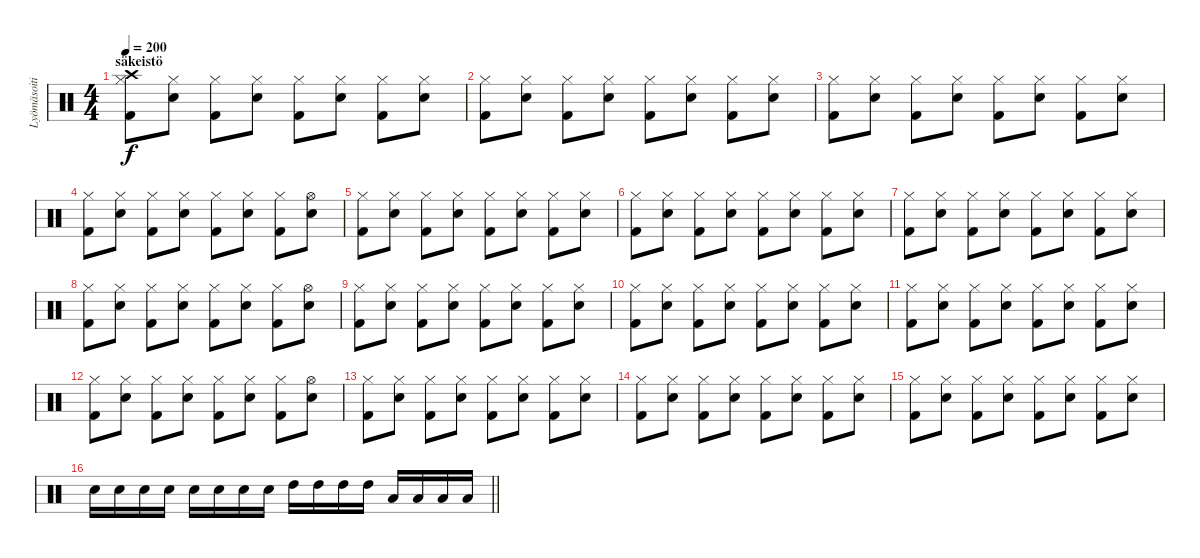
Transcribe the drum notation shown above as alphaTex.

\track ("Lyömäsoitin" "Lyömäsoiti") {instrument percussion}
\staff {score}
\articulation defaults
\ts (4 4)
\section ("" "säkeistö")
\tempo 200
\clef neutral
\ks c
("Crash high (hit)" "Hi-Hat (closed)" "Kick (hit) 2").8{dy f} ("Hi-Hat (closed)" "Electric Snare (hit)").8 ("Hi-Hat (closed)" "Kick (hit) 2").8 ("Hi-Hat (closed)" "Electric Snare (hit)").8 ("Hi-Hat (closed)" "Kick (hit) 2").8 ("Hi-Hat (closed)" "Electric Snare (hit)").8 ("Hi-Hat (closed)" "Kick (hit) 2").8 ("Hi-Hat (closed)" "Electric Snare (hit)").8 |
("Hi-Hat (closed)" "Kick (hit) 2").8 ("Hi-Hat (closed)" "Electric Snare (hit)").8 ("Hi-Hat (closed)" "Kick (hit) 2").8 ("Hi-Hat (closed)" "Electric Snare (hit)").8 ("Hi-Hat (closed)" "Kick (hit) 2").8 ("Hi-Hat (closed)" "Electric Snare (hit)").8 ("Hi-Hat (closed)" "Kick (hit) 2").8 ("Hi-Hat (closed)" "Electric Snare (hit)").8 |
("Hi-Hat (closed)" "Kick (hit) 2").8 ("Hi-Hat (closed)" "Electric Snare (hit)").8 ("Hi-Hat (closed)" "Kick (hit) 2").8 ("Hi-Hat (closed)" "Electric Snare (hit)").8 ("Hi-Hat (closed)" "Kick (hit) 2").8 ("Hi-Hat (closed)" "Electric Snare (hit)").8 ("Hi-Hat (closed)" "Kick (hit) 2").8 ("Hi-Hat (closed)" "Electric Snare (hit)").8 |
("Hi-Hat (closed)" "Kick (hit) 2").8 ("Hi-Hat (closed)" "Electric Snare (hit)").8 ("Hi-Hat (closed)" "Kick (hit) 2").8 ("Hi-Hat (closed)" "Electric Snare (hit)").8 ("Hi-Hat (closed)" "Kick (hit) 2").8 ("Hi-Hat (closed)" "Electric Snare (hit)").8 ("Hi-Hat (closed)" "Kick (hit) 2").8 ("Hi-Hat (open)" "Electric Snare (hit)").8 |
("Hi-Hat (closed)" "Kick (hit) 2").8 ("Hi-Hat (closed)" "Electric Snare (hit)").8 ("Hi-Hat (closed)" "Kick (hit) 2").8 ("Hi-Hat (closed)" "Electric Snare (hit)").8 ("Hi-Hat (closed)" "Kick (hit) 2").8 ("Hi-Hat (closed)" "Electric Snare (hit)").8 ("Hi-Hat (closed)" "Kick (hit) 2").8 ("Hi-Hat (closed)" "Electric Snare (hit)").8 |
("Hi-Hat (closed)" "Kick (hit) 2").8 ("Hi-Hat (closed)" "Electric Snare (hit)").8 ("Hi-Hat (closed)" "Kick (hit) 2").8 ("Hi-Hat (closed)" "Electric Snare (hit)").8 ("Hi-Hat (closed)" "Kick (hit) 2").8 ("Hi-Hat (closed)" "Electric Snare (hit)").8 ("Hi-Hat (closed)" "Kick (hit) 2").8 ("Hi-Hat (closed)" "Electric Snare (hit)").8 |
("Hi-Hat (closed)" "Kick (hit) 2").8 ("Hi-Hat (closed)" "Electric Snare (hit)").8 ("Hi-Hat (closed)" "Kick (hit) 2").8 ("Hi-Hat (closed)" "Electric Snare (hit)").8 ("Hi-Hat (closed)" "Kick (hit) 2").8 ("Hi-Hat (closed)" "Electric Snare (hit)").8 ("Hi-Hat (closed)" "Kick (hit) 2").8 ("Hi-Hat (closed)" "Electric Snare (hit)").8 |
("Hi-Hat (closed)" "Kick (hit) 2").8 ("Hi-Hat (closed)" "Electric Snare (hit)").8 ("Hi-Hat (closed)" "Kick (hit) 2").8 ("Hi-Hat (closed)" "Electric Snare (hit)").8 ("Hi-Hat (closed)" "Kick (hit) 2").8 ("Hi-Hat (closed)" "Electric Snare (hit)").8 ("Hi-Hat (closed)" "Kick (hit) 2").8 ("Hi-Hat (open)" "Electric Snare (hit)").8 |
("Hi-Hat (closed)" "Kick (hit) 2").8 ("Hi-Hat (closed)" "Electric Snare (hit)").8 ("Hi-Hat (closed)" "Kick (hit) 2").8 ("Hi-Hat (closed)" "Electric Snare (hit)").8 ("Hi-Hat (closed)" "Kick (hit) 2").8 ("Hi-Hat (closed)" "Electric Snare (hit)").8 ("Hi-Hat (closed)" "Kick (hit) 2").8 ("Hi-Hat (closed)" "Electric Snare (hit)").8 |
("Hi-Hat (closed)" "Kick (hit) 2").8 ("Hi-Hat (closed)" "Electric Snare (hit)").8 ("Hi-Hat (closed)" "Kick (hit) 2").8 ("Hi-Hat (closed)" "Electric Snare (hit)").8 ("Hi-Hat (closed)" "Kick (hit) 2").8 ("Hi-Hat (closed)" "Electric Snare (hit)").8 ("Hi-Hat (closed)" "Kick (hit) 2").8 ("Hi-Hat (closed)" "Electric Snare (hit)").8 |
("Hi-Hat (closed)" "Kick (hit) 2").8 ("Hi-Hat (closed)" "Electric Snare (hit)").8 ("Hi-Hat (closed)" "Kick (hit) 2").8 ("Hi-Hat (closed)" "Electric Snare (hit)").8 ("Hi-Hat (closed)" "Kick (hit) 2").8 ("Hi-Hat (closed)" "Electric Snare (hit)").8 ("Hi-Hat (closed)" "Kick (hit) 2").8 ("Hi-Hat (closed)" "Electric Snare (hit)").8 |
("Hi-Hat (closed)" "Kick (hit) 2").8 ("Hi-Hat (closed)" "Electric Snare (hit)").8 ("Hi-Hat (closed)" "Kick (hit) 2").8 ("Hi-Hat (closed)" "Electric Snare (hit)").8 ("Hi-Hat (closed)" "Kick (hit) 2").8 ("Hi-Hat (closed)" "Electric Snare (hit)").8 ("Hi-Hat (closed)" "Kick (hit) 2").8 ("Hi-Hat (open)" "Electric Snare (hit)").8 |
("Hi-Hat (closed)" "Kick (hit) 2").8 ("Hi-Hat (closed)" "Electric Snare (hit)").8 ("Hi-Hat (closed)" "Kick (hit) 2").8 ("Hi-Hat (closed)" "Electric Snare (hit)").8 ("Hi-Hat (closed)" "Kick (hit) 2").8 ("Hi-Hat (closed)" "Electric Snare (hit)").8 ("Hi-Hat (closed)" "Kick (hit) 2").8 ("Hi-Hat (closed)" "Electric Snare (hit)").8 |
("Hi-Hat (closed)" "Kick (hit) 2").8 ("Hi-Hat (closed)" "Electric Snare (hit)").8 ("Hi-Hat (closed)" "Kick (hit) 2").8 ("Hi-Hat (closed)" "Electric Snare (hit)").8 ("Hi-Hat (closed)" "Kick (hit) 2").8 ("Hi-Hat (closed)" "Electric Snare (hit)").8 ("Hi-Hat (closed)" "Kick (hit) 2").8 ("Hi-Hat (closed)" "Electric Snare (hit)").8 |
("Hi-Hat (closed)" "Kick (hit) 2").8 ("Hi-Hat (closed)" "Electric Snare (hit)").8 ("Hi-Hat (closed)" "Kick (hit) 2").8 ("Hi-Hat (closed)" "Electric Snare (hit)").8 ("Hi-Hat (closed)" "Kick (hit) 2").8 ("Hi-Hat (closed)" "Electric Snare (hit)").8 ("Hi-Hat (closed)" "Kick (hit) 2").8 ("Hi-Hat (closed)" "Electric Snare (hit)").8 |
\barLineRight lightlight "Electric Snare (hit)".16 "Electric Snare (hit)".16 "Electric Snare (hit)".16 "Electric Snare (hit)".16 "Electric Snare (hit)".16 "Electric Snare (hit)".16 "Electric Snare (hit)".16 "Electric Snare (hit)".16 "High Tom (hit)".16 "High Tom (hit)".16 "High Tom (hit)".16 "High Tom (hit)".16 "Low Tom (hit)".16 "Low Tom (hit)".16 "Low Tom (hit)".16 "Low Tom (hit)".16
